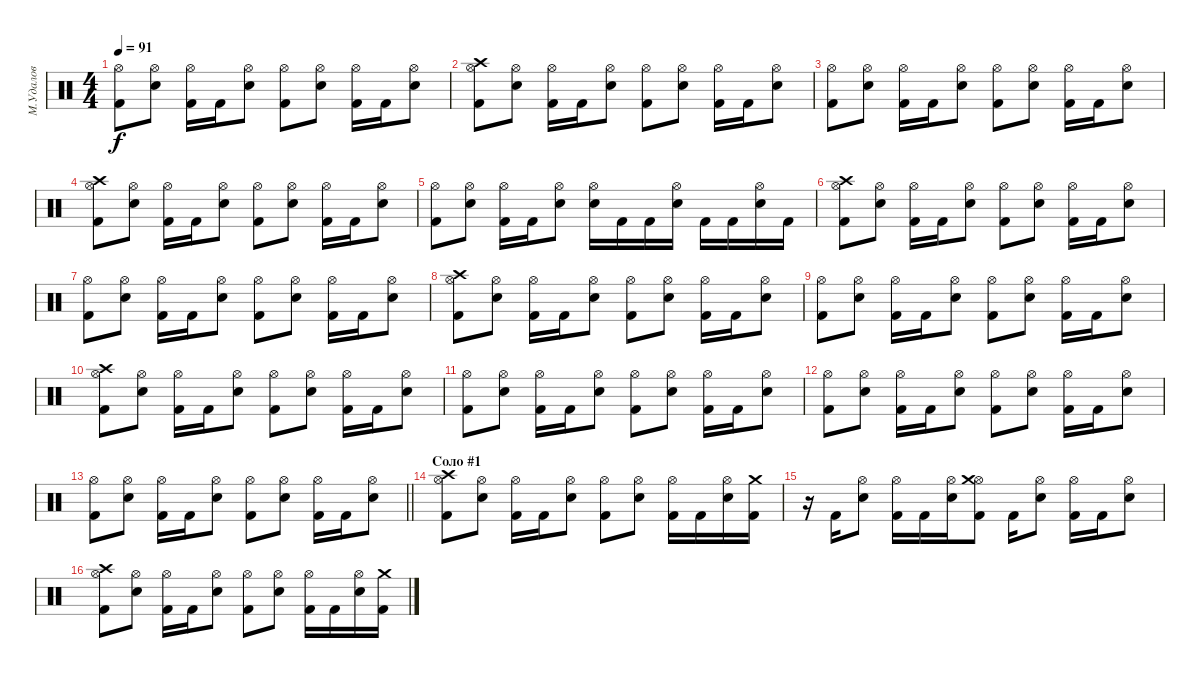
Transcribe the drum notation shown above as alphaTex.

\track ("М.Удалов" "М.Удалов") {instrument percussion}
\staff {score}
\articulation defaults
\ts (4 4)
\tempo 91
\clef neutral
\ks c
("Kick (hit) 2" "Hi-Hat (open)").8{dy f} ("Electric Snare (hit)" "Hi-Hat (open)").8 ("Kick (hit) 2" "Hi-Hat (open)").16 "Kick (hit) 2".16 ("Electric Snare (hit)" "Hi-Hat (open)").8 ("Kick (hit) 2" "Hi-Hat (open)").8 ("Electric Snare (hit)" "Hi-Hat (open)").8 ("Kick (hit) 2" "Hi-Hat (open)").16 "Kick (hit) 2".16 ("Electric Snare (hit)" "Hi-Hat (open)").8 |
("Kick (hit) 2" "Hi-Hat (open)" "Crash high (hit)").8 ("Electric Snare (hit)" "Hi-Hat (open)").8 ("Kick (hit) 2" "Hi-Hat (open)").16 "Kick (hit) 2".16 ("Electric Snare (hit)" "Hi-Hat (open)").8 ("Kick (hit) 2" "Hi-Hat (open)").8 ("Electric Snare (hit)" "Hi-Hat (open)").8 ("Kick (hit) 2" "Hi-Hat (open)").16 "Kick (hit) 2".16 ("Electric Snare (hit)" "Hi-Hat (open)").8 |
("Kick (hit) 2" "Hi-Hat (open)").8 ("Electric Snare (hit)" "Hi-Hat (open)").8 ("Kick (hit) 2" "Hi-Hat (open)").16 "Kick (hit) 2".16 ("Electric Snare (hit)" "Hi-Hat (open)").8 ("Kick (hit) 2" "Hi-Hat (open)").8 ("Electric Snare (hit)" "Hi-Hat (open)").8 ("Kick (hit) 2" "Hi-Hat (open)").16 "Kick (hit) 2".16 ("Electric Snare (hit)" "Hi-Hat (open)").8 |
("Kick (hit) 2" "Hi-Hat (open)" "Crash high (hit)").8 ("Electric Snare (hit)" "Hi-Hat (open)").8 ("Kick (hit) 2" "Hi-Hat (open)").16 "Kick (hit) 2".16 ("Electric Snare (hit)" "Hi-Hat (open)").8 ("Kick (hit) 2" "Hi-Hat (open)").8 ("Electric Snare (hit)" "Hi-Hat (open)").8 ("Kick (hit) 2" "Hi-Hat (open)").16 "Kick (hit) 2".16 ("Electric Snare (hit)" "Hi-Hat (open)").8 |
("Kick (hit) 2" "Hi-Hat (open)").8 ("Electric Snare (hit)" "Hi-Hat (open)").8 ("Kick (hit) 2" "Hi-Hat (open)").16 "Kick (hit) 2".16 ("Electric Snare (hit)" "Hi-Hat (open)").8 ("Electric Snare (hit)" "Hi-Hat (open)").16 "Kick (hit) 2".16 "Kick (hit) 2".16 ("Electric Snare (hit)" "Hi-Hat (open)").16 "Kick (hit) 2".16 "Kick (hit) 2".16 ("Electric Snare (hit)" "Hi-Hat (open)").16 "Kick (hit) 2".16 |
("Kick (hit) 2" "Hi-Hat (open)" "Crash high (hit)").8 ("Electric Snare (hit)" "Hi-Hat (open)").8 ("Kick (hit) 2" "Hi-Hat (open)").16 "Kick (hit) 2".16 ("Electric Snare (hit)" "Hi-Hat (open)").8 ("Kick (hit) 2" "Hi-Hat (open)").8 ("Electric Snare (hit)" "Hi-Hat (open)").8 ("Kick (hit) 2" "Hi-Hat (open)").16 "Kick (hit) 2".16 ("Electric Snare (hit)" "Hi-Hat (open)").8 |
("Kick (hit) 2" "Hi-Hat (open)").8 ("Electric Snare (hit)" "Hi-Hat (open)").8 ("Kick (hit) 2" "Hi-Hat (open)").16 "Kick (hit) 2".16 ("Electric Snare (hit)" "Hi-Hat (open)").8 ("Kick (hit) 2" "Hi-Hat (open)").8 ("Electric Snare (hit)" "Hi-Hat (open)").8 ("Kick (hit) 2" "Hi-Hat (open)").16 "Kick (hit) 2".16 ("Electric Snare (hit)" "Hi-Hat (open)").8 |
("Kick (hit) 2" "Hi-Hat (open)" "Crash high (hit)").8 ("Electric Snare (hit)" "Hi-Hat (open)").8 ("Kick (hit) 2" "Hi-Hat (open)").16 "Kick (hit) 2".16 ("Electric Snare (hit)" "Hi-Hat (open)").8 ("Kick (hit) 2" "Hi-Hat (open)").8 ("Electric Snare (hit)" "Hi-Hat (open)").8 ("Kick (hit) 2" "Hi-Hat (open)").16 "Kick (hit) 2".16 ("Electric Snare (hit)" "Hi-Hat (open)").8 |
("Kick (hit) 2" "Hi-Hat (open)").8 ("Electric Snare (hit)" "Hi-Hat (open)").8 ("Kick (hit) 2" "Hi-Hat (open)").16 "Kick (hit) 2".16 ("Electric Snare (hit)" "Hi-Hat (open)").8 ("Kick (hit) 2" "Hi-Hat (open)").8 ("Electric Snare (hit)" "Hi-Hat (open)").8 ("Kick (hit) 2" "Hi-Hat (open)").16 "Kick (hit) 2".16 ("Electric Snare (hit)" "Hi-Hat (open)").8 |
("Kick (hit) 2" "Hi-Hat (open)" "Crash high (hit)").8 ("Electric Snare (hit)" "Hi-Hat (open)").8 ("Kick (hit) 2" "Hi-Hat (open)").16 "Kick (hit) 2".16 ("Electric Snare (hit)" "Hi-Hat (open)").8 ("Kick (hit) 2" "Hi-Hat (open)").8 ("Electric Snare (hit)" "Hi-Hat (open)").8 ("Kick (hit) 2" "Hi-Hat (open)").16 "Kick (hit) 2".16 ("Electric Snare (hit)" "Hi-Hat (open)").8 |
("Kick (hit) 2" "Hi-Hat (open)").8 ("Electric Snare (hit)" "Hi-Hat (open)").8 ("Kick (hit) 2" "Hi-Hat (open)").16 "Kick (hit) 2".16 ("Electric Snare (hit)" "Hi-Hat (open)").8 ("Kick (hit) 2" "Hi-Hat (open)").8 ("Electric Snare (hit)" "Hi-Hat (open)").8 ("Kick (hit) 2" "Hi-Hat (open)").16 "Kick (hit) 2".16 ("Electric Snare (hit)" "Hi-Hat (open)").8 |
("Kick (hit) 2" "Hi-Hat (open)").8 ("Electric Snare (hit)" "Hi-Hat (open)").8 ("Kick (hit) 2" "Hi-Hat (open)").16 "Kick (hit) 2".16 ("Electric Snare (hit)" "Hi-Hat (open)").8 ("Kick (hit) 2" "Hi-Hat (open)").8 ("Electric Snare (hit)" "Hi-Hat (open)").8 ("Kick (hit) 2" "Hi-Hat (open)").16 "Kick (hit) 2".16 ("Electric Snare (hit)" "Hi-Hat (open)").8 |
\barLineRight lightlight
("Kick (hit) 2" "Hi-Hat (open)").8 ("Electric Snare (hit)" "Hi-Hat (open)").8 ("Kick (hit) 2" "Hi-Hat (open)").16 "Kick (hit) 2".16 ("Electric Snare (hit)" "Hi-Hat (open)").8 ("Kick (hit) 2" "Hi-Hat (open)").8 ("Electric Snare (hit)" "Hi-Hat (open)").8 ("Kick (hit) 2" "Hi-Hat (open)").16 "Kick (hit) 2".16 ("Electric Snare (hit)" "Hi-Hat (open)").8 |
\section ("" "Соло #1")
("Kick (hit) 2" "Hi-Hat (open)" "Crash high (hit)").8 ("Electric Snare (hit)" "Hi-Hat (open)").8 ("Kick (hit) 2" "Hi-Hat (open)").16 "Kick (hit) 2".16 ("Electric Snare (hit)" "Hi-Hat (open)").8 ("Kick (hit) 2" "Hi-Hat (open)").8 ("Electric Snare (hit)" "Hi-Hat (open)").8 ("Kick (hit) 2" "Hi-Hat (open)").16 "Kick (hit) 2".16 ("Electric Snare (hit)" "Hi-Hat (open)").16 ("Kick (hit) 2" "Crash medium (hit)").16 |
r.16 "Kick (hit) 2".16 ("Electric Snare (hit)" "Hi-Hat (open)").8 ("Kick (hit) 2" "Hi-Hat (open)").16 "Kick (hit) 2".16 ("Electric Snare (hit)" "Hi-Hat (open)").16 ("Kick (hit) 2" "Hi-Hat (open)" "Crash medium (hit)").8 "Kick (hit) 2".16 ("Electric Snare (hit)" "Hi-Hat (open)").8 ("Kick (hit) 2" "Hi-Hat (open)").16 "Kick (hit) 2".16 ("Electric Snare (hit)" "Hi-Hat (open)").8 |
("Kick (hit) 2" "Hi-Hat (open)" "Crash high (hit)").8 ("Electric Snare (hit)" "Hi-Hat (open)").8 ("Kick (hit) 2" "Hi-Hat (open)").16 "Kick (hit) 2".16 ("Electric Snare (hit)" "Hi-Hat (open)").8 ("Kick (hit) 2" "Hi-Hat (open)").8 ("Electric Snare (hit)" "Hi-Hat (open)").8 ("Kick (hit) 2" "Hi-Hat (open)").16 "Kick (hit) 2".16 ("Electric Snare (hit)" "Hi-Hat (open)").16 ("Kick (hit) 2" "Crash medium (hit)").16
